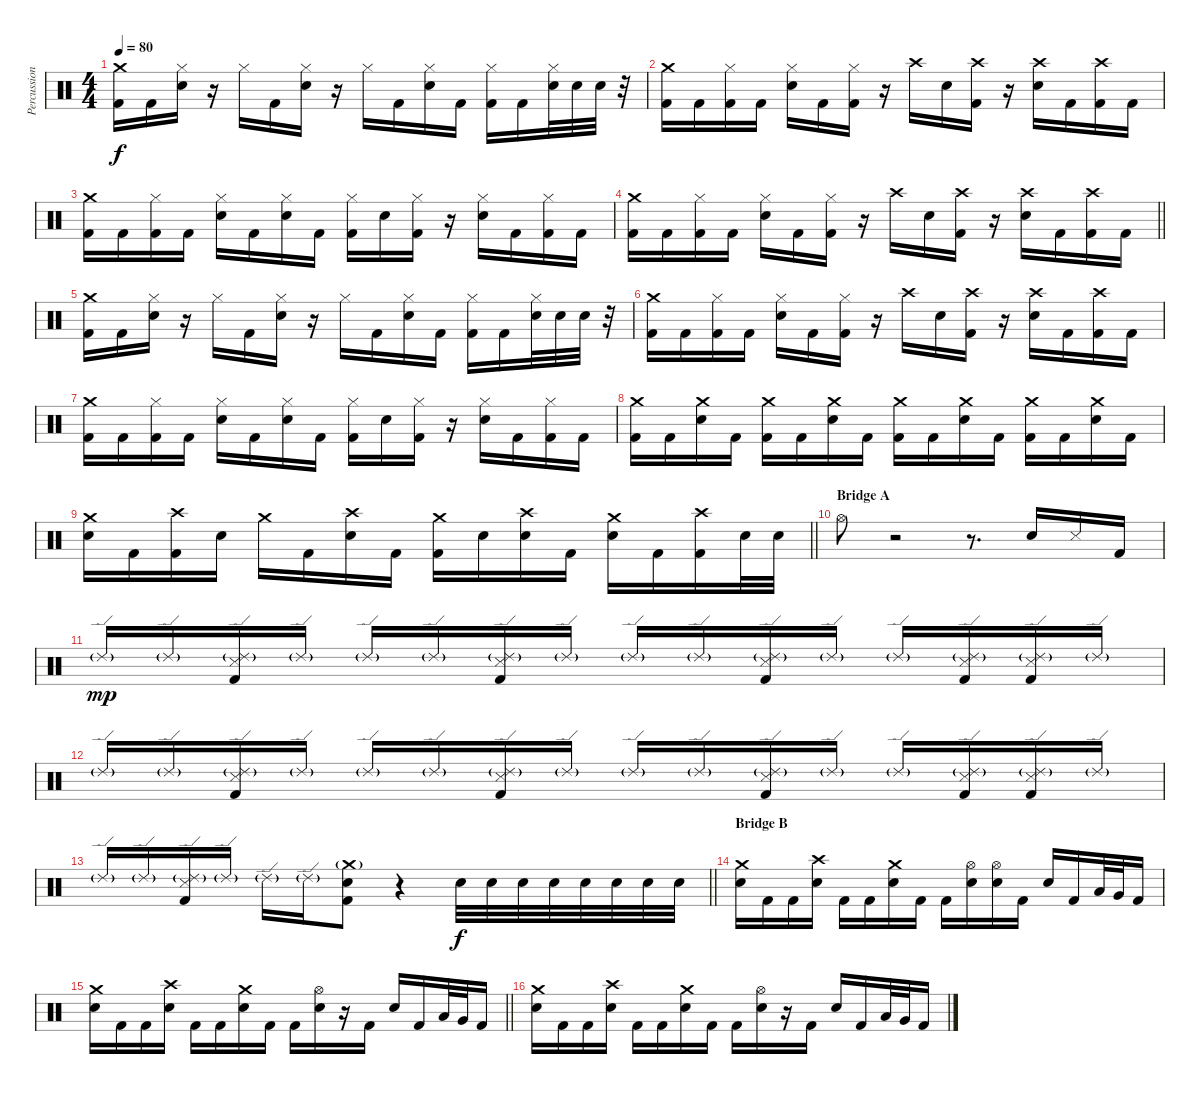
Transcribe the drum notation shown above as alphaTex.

\track ("Percussion" "Percussion") {instrument percussion}
\staff {score}
\articulation defaults
\ts (4 4)
\tempo 80
\clef neutral
\ks c
("Crash medium (hit)" "Kick (hit) 2").16{dy f} "Kick (hit) 2".16 ("Hi-Hat (closed)" "Electric Snare (hit)").16 r.16 "Hi-Hat (closed)".16 "Kick (hit) 2".16 ("Hi-Hat (closed)" "Electric Snare (hit)").16 r.16 "Hi-Hat (closed)".16 "Kick (hit) 2".16 ("Hi-Hat (closed)" "Electric Snare (hit)").16 "Kick (hit) 2".16 ("Hi-Hat (closed)" "Kick (hit) 2").16 "Kick (hit) 2".16 ("Hi-Hat (closed)" "Electric Snare (hit)").32 "Electric Snare (hit)".32 "Electric Snare (hit)".32 r.32 |
("Crash medium (hit)" "Kick (hit) 2").16 "Kick (hit) 2".16 ("Hi-Hat (closed)" "Kick (hit) 2").16 "Kick (hit) 2".16 ("Hi-Hat (closed)" "Electric Snare (hit)").16 "Kick (hit) 2".16 ("Hi-Hat (closed)" "Kick (hit) 2").16 r.16 "Crash high (hit)".16 "Electric Snare (hit)".16 ("Crash high (hit)" "Kick (hit) 2").16 r.16 ("Crash high (hit)" "Electric Snare (hit)").16 "Kick (hit) 2".16 ("Crash high (hit)" "Kick (hit) 2").16 "Kick (hit) 2".16 |
("Crash medium (hit)" "Kick (hit) 2").16 "Kick (hit) 2".16 ("Hi-Hat (closed)" "Kick (hit) 2").16 "Kick (hit) 2".16 ("Hi-Hat (closed)" "Electric Snare (hit)").16 "Kick (hit) 2".16 ("Hi-Hat (closed)" "Electric Snare (hit)").16 "Kick (hit) 2".16 ("Hi-Hat (closed)" "Kick (hit) 2").16 "Electric Snare (hit)".16 ("Hi-Hat (closed)" "Kick (hit) 2").16 r.16 ("Hi-Hat (closed)" "Electric Snare (hit)").16 "Kick (hit) 2".16 ("Hi-Hat (closed)" "Kick (hit) 2").16 "Kick (hit) 2".16 |
\barLineRight lightlight
("Crash medium (hit)" "Kick (hit) 2").16 "Kick (hit) 2".16 ("Hi-Hat (closed)" "Kick (hit) 2").16 "Kick (hit) 2".16 ("Hi-Hat (closed)" "Electric Snare (hit)").16 "Kick (hit) 2".16 ("Hi-Hat (closed)" "Kick (hit) 2").16 r.16 "Crash high (hit)".16 "Electric Snare (hit)".16 ("Crash high (hit)" "Kick (hit) 2").16 r.16 ("Crash high (hit)" "Electric Snare (hit)").16 "Kick (hit) 2".16 ("Crash high (hit)" "Kick (hit) 2").16 "Kick (hit) 2".16 |
("Crash medium (hit)" "Kick (hit) 2").16 "Kick (hit) 2".16 ("Hi-Hat (closed)" "Electric Snare (hit)").16 r.16 "Hi-Hat (closed)".16 "Kick (hit) 2".16 ("Hi-Hat (closed)" "Electric Snare (hit)").16 r.16 "Hi-Hat (closed)".16 "Kick (hit) 2".16 ("Hi-Hat (closed)" "Electric Snare (hit)").16 "Kick (hit) 2".16 ("Hi-Hat (closed)" "Kick (hit) 2").16 "Kick (hit) 2".16 ("Hi-Hat (closed)" "Electric Snare (hit)").32 "Electric Snare (hit)".32 "Electric Snare (hit)".32 r.32 |
("Crash medium (hit)" "Kick (hit) 2").16 "Kick (hit) 2".16 ("Hi-Hat (closed)" "Kick (hit) 2").16 "Kick (hit) 2".16 ("Hi-Hat (closed)" "Electric Snare (hit)").16 "Kick (hit) 2".16 ("Hi-Hat (closed)" "Kick (hit) 2").16 r.16 "Crash high (hit)".16 "Electric Snare (hit)".16 ("Crash high (hit)" "Kick (hit) 2").16 r.16 ("Crash high (hit)" "Electric Snare (hit)").16 "Kick (hit) 2".16 ("Crash high (hit)" "Kick (hit) 2").16 "Kick (hit) 2".16 |
("Crash medium (hit)" "Kick (hit) 2").16 "Kick (hit) 2".16 ("Hi-Hat (closed)" "Kick (hit) 2").16 "Kick (hit) 2".16 ("Hi-Hat (closed)" "Electric Snare (hit)").16 "Kick (hit) 2".16 ("Hi-Hat (closed)" "Electric Snare (hit)").16 "Kick (hit) 2".16 ("Hi-Hat (closed)" "Kick (hit) 2").16 "Electric Snare (hit)".16 ("Hi-Hat (closed)" "Kick (hit) 2").16 r.16 ("Hi-Hat (closed)" "Electric Snare (hit)").16 "Kick (hit) 2".16 ("Hi-Hat (closed)" "Kick (hit) 2").16 "Kick (hit) 2".16 |
("Crash medium (hit)" "Kick (hit) 2").16 "Kick (hit) 2".16 ("Crash medium (hit)" "Electric Snare (hit)").16 "Kick (hit) 2".16 ("Crash medium (hit)" "Kick (hit) 2").16 "Kick (hit) 2".16 ("Crash medium (hit)" "Electric Snare (hit)").16 "Kick (hit) 2".16 ("Crash medium (hit)" "Kick (hit) 2").16 "Kick (hit) 2".16 ("Crash medium (hit)" "Electric Snare (hit)").16 "Kick (hit) 2".16 ("Crash medium (hit)" "Kick (hit) 2").16 "Kick (hit) 2".16 ("Crash medium (hit)" "Electric Snare (hit)").16 "Kick (hit) 2".16 |
\barLineRight lightlight
("Crash medium (hit)" "Electric Snare (hit)").16 "Kick (hit) 2".16 ("Crash high (hit)" "Kick (hit) 2").16 "Electric Snare (hit)".16 "Crash medium (hit)".16 "Kick (hit) 2".16 ("Crash high (hit)" "Electric Snare (hit)").16 "Kick (hit) 2".16 ("Crash medium (hit)" "Kick (hit) 2").16 "Electric Snare (hit)".16 ("Crash high (hit)" "Electric Snare (hit)").16 "Kick (hit) 2".16 ("Crash medium (hit)" "Electric Snare (hit)").16 "Kick (hit) 2".16 ("Crash high (hit)" "Kick (hit) 2").16 "Electric Snare (hit)".32 "Electric Snare (hit)".32 |
\section ("" "Bridge A")
"Hi-Hat (open)".8 r.2 r.8{d} "Metronome (bell)".16 "Metronome (hit)".16 "Kick (hit) 2".16 |
"Ride (edge) 2"{g}.16{dy mp} "Ride (edge) 2"{g}.16 ("Ride (edge) 2"{g} "Metronome (hit)" "Kick (hit) 2").16 "Ride (edge) 2"{g}.16 "Ride (edge) 2"{g}.16 "Ride (edge) 2"{g}.16 ("Ride (edge) 2"{g} "Metronome (hit)" "Kick (hit) 2").16 "Ride (edge) 2"{g}.16 "Ride (edge) 2"{g}.16 "Ride (edge) 2"{g}.16 ("Ride (edge) 2"{g} "Metronome (hit)" "Kick (hit) 2").16 "Ride (edge) 2"{g}.16 "Ride (edge) 2"{g}.16 ("Ride (edge) 2"{g} "Metronome (hit)" "Kick (hit) 2").16 ("Ride (edge) 2"{g} "Metronome (hit)" "Kick (hit) 2").16 "Ride (edge) 2"{g}.16 |
"Ride (edge) 2"{g}.16 "Ride (edge) 2"{g}.16 ("Ride (edge) 2"{g} "Metronome (hit)" "Kick (hit) 2").16 "Ride (edge) 2"{g}.16 "Ride (edge) 2"{g}.16 "Ride (edge) 2"{g}.16 ("Ride (edge) 2"{g} "Metronome (hit)" "Kick (hit) 2").16 "Ride (edge) 2"{g}.16 "Ride (edge) 2"{g}.16 "Ride (edge) 2"{g}.16 ("Ride (edge) 2"{g} "Metronome (hit)" "Kick (hit) 2").16 "Ride (edge) 2"{g}.16 "Ride (edge) 2"{g}.16 ("Ride (edge) 2"{g} "Metronome (hit)" "Kick (hit) 2").16 ("Ride (edge) 2"{g} "Metronome (hit)" "Kick (hit) 2").16 "Ride (edge) 2"{g}.16 |
\barLineRight lightlight "Ride (edge) 2"{g}.16 "Ride (edge) 2"{g}.16
("Ride (edge) 2"{g} "Metronome (hit)" "Kick (hit) 2").16 "Ride (edge) 2"{g}.16 "Ride (edge) 2"{g}.16 "Ride (edge) 2"{g}.16 ("Crash medium (hit)"{g} "Electric Snare (hit)" "Kick (hit) 2").8 r.4 "Electric Snare (hit)".32{dy f} "Electric Snare (hit)".32 "Electric Snare (hit)".32 "Electric Snare (hit)".32 "Electric Snare (hit)".32 "Electric Snare (hit)".32 "Electric Snare (hit)".32 "Electric Snare (hit)".32 |
\section ("" "Bridge B")
("Crash medium (hit)" "Electric Snare (hit)").16 "Kick (hit) 2".16 "Kick (hit) 2".16 ("Crash high (hit)" "Electric Snare (hit)").16 "Kick (hit) 2".16 "Kick (hit) 2".16 ("Crash medium (hit)" "Electric Snare (hit)").16 "Kick (hit) 2".16 "Kick (hit) 2".16 ("Hi-Hat (open)" "Electric Snare (hit)").16 ("Hi-Hat (open)" "Electric Snare (hit)").16 "Kick (hit) 2".16 "Electric Snare (hit)".16 "Kick (hit) 2".16 "Low Floor Tom (hit)".32 "Very Low Tom (hit)".32 "Kick (hit) 2".16 |
\barLineRight lightlight
("Crash medium (hit)" "Electric Snare (hit)").16 "Kick (hit) 2".16 "Kick (hit) 2".16 ("Crash high (hit)" "Electric Snare (hit)").16 "Kick (hit) 2".16 "Kick (hit) 2".16 ("Crash medium (hit)" "Electric Snare (hit)").16 "Kick (hit) 2".16 "Kick (hit) 2".16 ("Hi-Hat (open)" "Electric Snare (hit)").16 r.16 "Kick (hit) 2".16 "Electric Snare (hit)".16 "Kick (hit) 2".16 "Low Floor Tom (hit)".32 "Very Low Tom (hit)".32 "Kick (hit) 2".16 |
("Crash medium (hit)" "Electric Snare (hit)").16 "Kick (hit) 2".16 "Kick (hit) 2".16 ("Crash high (hit)" "Electric Snare (hit)").16 "Kick (hit) 2".16 "Kick (hit) 2".16 ("Crash medium (hit)" "Electric Snare (hit)").16 "Kick (hit) 2".16 "Kick (hit) 2".16 ("Hi-Hat (open)" "Electric Snare (hit)").16 r.16 "Kick (hit) 2".16 "Electric Snare (hit)".16 "Kick (hit) 2".16 "Low Floor Tom (hit)".32 "Very Low Tom (hit)".32 "Kick (hit) 2".16
